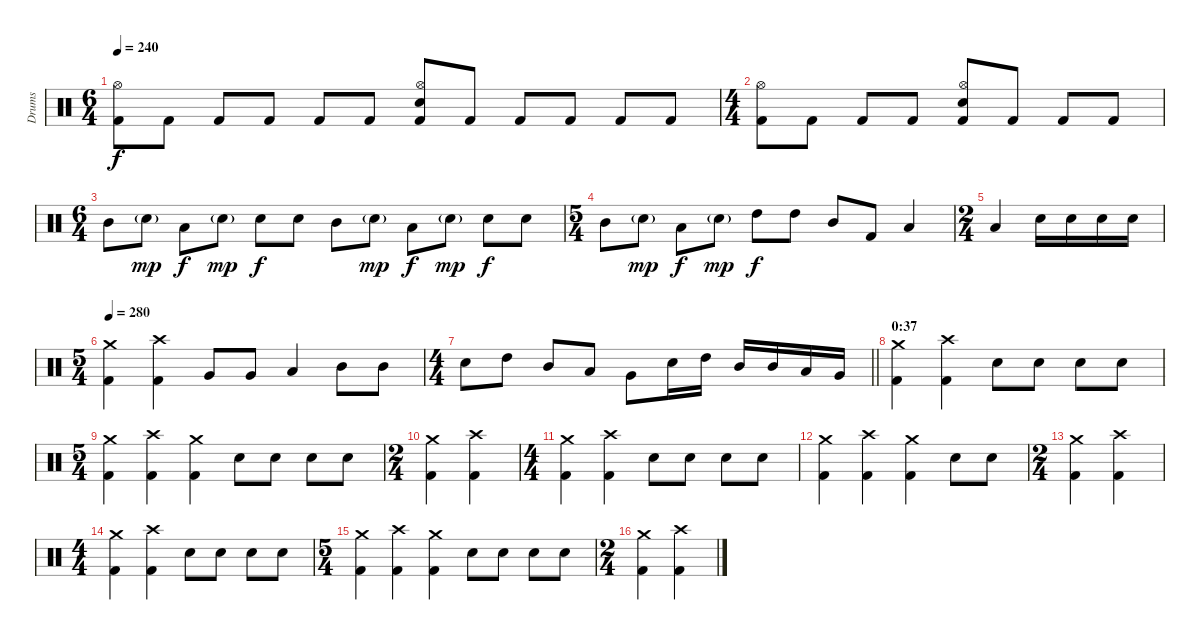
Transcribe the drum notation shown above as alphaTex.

\track ("Drums" "Drums") {instrument percussion}
\staff {score}
\articulation defaults
\ts (6 4)
\tempo 240
\clef neutral
\ks c
("Kick (hit) 2" "Hi-Hat (open)").8{dy f} "Kick (hit) 2".8 "Kick (hit) 2".8 "Kick (hit) 2".8 "Kick (hit) 2".8 "Kick (hit) 2".8 ("Kick (hit) 2" "Hi-Hat (open)" "Electric Snare (hit)").8 "Kick (hit) 2".8 "Kick (hit) 2".8 "Kick (hit) 2".8 "Kick (hit) 2".8 "Kick (hit) 2".8 |
\ts (4 4)
("Kick (hit) 2" "Hi-Hat (open)").8 "Kick (hit) 2".8 "Kick (hit) 2".8 "Kick (hit) 2".8 ("Kick (hit) 2" "Hi-Hat (open)" "Electric Snare (hit)").8 "Kick (hit) 2".8 "Kick (hit) 2".8 "Kick (hit) 2".8 |
\ts (6 4)
"Mid Tom (hit)".8 "Electric Snare (hit)"{g}.8{dy mp} "Low Tom (hit)".8{dy f} "Electric Snare (hit)"{g}.8{dy mp} "Electric Snare (hit)".8{dy f} "Electric Snare (hit)".8 "Mid Tom (hit)".8 "Electric Snare (hit)"{g}.8{dy mp} "Low Tom (hit)".8{dy f} "Electric Snare (hit)"{g}.8{dy mp} "Electric Snare (hit)".8{dy f} "Electric Snare (hit)".8 |
\ts (5 4)
"Mid Tom (hit)".8 "Electric Snare (hit)"{g}.8{dy mp} "Low Tom (hit)".8{dy f} "Electric Snare (hit)"{g}.8{dy mp} "High Tom (hit)".8{dy f} "High Tom (hit)".8 "Mid Tom (hit)".8 "Kick (hit) 2".8 "Low Tom (hit)".4 |
\ts (2 4)
"Low Tom (hit)".4 "Electric Snare (hit)".16 "Electric Snare (hit)".16 "Electric Snare (hit)".16 "Electric Snare (hit)".16 |
\ts (5 4)
\tempo 280
("Crash medium (hit)" "Kick (hit) 2").4 ("Crash high (hit)" "Kick (hit) 2").4 "Very Low Tom (hit)".8 "Very Low Tom (hit)".8 "Low Tom (hit)".4 "Mid Tom (hit)".8 "Mid Tom (hit)".8 |
\ts (4 4)
\barLineRight lightlight "Electric Snare (hit)".8 "High Tom (hit)".8 "Mid Tom (hit)".8 "Low Tom (hit)".8 "Very Low Tom (hit)".8 "Electric Snare (hit)".16 "High Tom (hit)".16 "Mid Tom (hit)".16 "Mid Tom (hit)".16 "Low Tom (hit)".16 "Very Low Tom (hit)".16
|
\section ("" "0:37")
("Crash medium (hit)" "Kick (hit) 2").4 ("Crash high (hit)" "Kick (hit) 2").4 "Electric Snare (hit)".8 "Electric Snare (hit)".8 "Electric Snare (hit)".8 "Electric Snare (hit)".8 |
\ts (5 4)
("Crash medium (hit)" "Kick (hit) 2").4 ("Crash high (hit)" "Kick (hit) 2").4 ("Crash medium (hit)" "Kick (hit) 2").4 "Electric Snare (hit)".8 "Electric Snare (hit)".8 "Electric Snare (hit)".8 "Electric Snare (hit)".8 |
\ts (2 4)
("Crash medium (hit)" "Kick (hit) 2").4 ("Crash high (hit)" "Kick (hit) 2").4 |
\ts (4 4)
("Crash medium (hit)" "Kick (hit) 2").4 ("Crash high (hit)" "Kick (hit) 2").4 "Electric Snare (hit)".8 "Electric Snare (hit)".8 "Electric Snare (hit)".8 "Electric Snare (hit)".8 |
("Crash medium (hit)" "Kick (hit) 2").4 ("Crash high (hit)" "Kick (hit) 2").4 ("Crash medium (hit)" "Kick (hit) 2").4 "Electric Snare (hit)".8 "Electric Snare (hit)".8 |
\ts (2 4)
("Crash medium (hit)" "Kick (hit) 2").4 ("Crash high (hit)" "Kick (hit) 2").4 |
\ts (4 4)
("Crash medium (hit)" "Kick (hit) 2").4 ("Crash high (hit)" "Kick (hit) 2").4 "Electric Snare (hit)".8 "Electric Snare (hit)".8 "Electric Snare (hit)".8 "Electric Snare (hit)".8 |
\ts (5 4)
("Crash medium (hit)" "Kick (hit) 2").4 ("Crash high (hit)" "Kick (hit) 2").4 ("Crash medium (hit)" "Kick (hit) 2").4 "Electric Snare (hit)".8 "Electric Snare (hit)".8 "Electric Snare (hit)".8 "Electric Snare (hit)".8 |
\ts (2 4)
("Crash medium (hit)" "Kick (hit) 2").4 ("Crash high (hit)" "Kick (hit) 2").4
